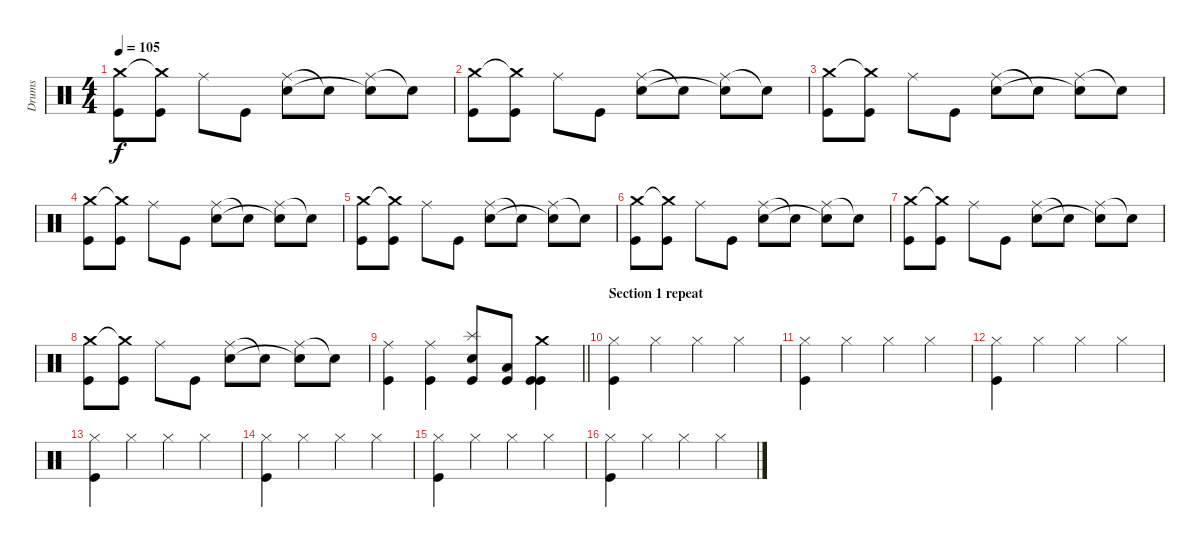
\track ("Drums" "Drums") {instrument percussion}
\staff {score}
\articulation defaults
\ts (4 4)
\tempo 105
\clef neutral
\ks c
("Crash medium (hit)" "Kick (hit)").8{dy f} ("Crash medium (hit)"{t} "Kick (hit)").8 "Ride (middle)".8 "Kick (hit)".8 ("Ride (middle)" "Snare (hit) 2").8 "Snare (hit) 2"{t}.8 ("Ride (middle)" "Snare (hit) 2"{t}).8 "Snare (hit) 2"{t}.8 |
("Crash medium (hit)" "Kick (hit)").8 ("Crash medium (hit)"{t} "Kick (hit)").8 "Ride (middle)".8 "Kick (hit)".8 ("Ride (middle)" "Snare (hit) 2").8 "Snare (hit) 2"{t}.8 ("Ride (middle)" "Snare (hit) 2"{t}).8 "Snare (hit) 2"{t}.8 |
("Crash medium (hit)" "Kick (hit)").8 ("Crash medium (hit)"{t} "Kick (hit)").8 "Ride (middle)".8 "Kick (hit)".8 ("Ride (middle)" "Snare (hit) 2").8 "Snare (hit) 2"{t}.8 ("Ride (middle)" "Snare (hit) 2"{t}).8 "Snare (hit) 2"{t}.8 |
("Crash medium (hit)" "Kick (hit)").8 ("Crash medium (hit)"{t} "Kick (hit)").8 "Ride (middle)".8 "Kick (hit)".8 ("Ride (middle)" "Snare (hit) 2").8 "Snare (hit) 2"{t}.8 ("Ride (middle)" "Snare (hit) 2"{t}).8 "Snare (hit) 2"{t}.8 |
("Crash medium (hit)" "Kick (hit)").8 ("Crash medium (hit)"{t} "Kick (hit)").8 "Ride (middle)".8 "Kick (hit)".8 ("Ride (middle)" "Snare (hit) 2").8 "Snare (hit) 2"{t}.8 ("Ride (middle)" "Snare (hit) 2"{t}).8 "Snare (hit) 2"{t}.8 |
("Crash medium (hit)" "Kick (hit)").8 ("Crash medium (hit)"{t} "Kick (hit)").8 "Ride (middle)".8 "Kick (hit)".8 ("Ride (middle)" "Snare (hit) 2").8 "Snare (hit) 2"{t}.8 ("Ride (middle)" "Snare (hit) 2"{t}).8 "Snare (hit) 2"{t}.8 |
("Crash medium (hit)" "Kick (hit)").8 ("Crash medium (hit)"{t} "Kick (hit)").8 "Ride (middle)".8 "Kick (hit)".8 ("Ride (middle)" "Snare (hit) 2").8 "Snare (hit) 2"{t}.8 ("Ride (middle)" "Snare (hit) 2"{t}).8 "Snare (hit) 2"{t}.8 |
("Crash medium (hit)" "Kick (hit)").8 ("Crash medium (hit)"{t} "Kick (hit)").8 "Ride (middle)".8 "Kick (hit)".8 ("Ride (middle)" "Snare (hit) 2").8 "Snare (hit) 2"{t}.8 ("Ride (middle)" "Snare (hit) 2"{t}).8 "Snare (hit) 2"{t}.8 |
\barLineRight lightlight
("Ride (middle)" "Kick (hit)").4 ("Ride (middle)" "Kick (hit)").4 ("Splash (hit)" "Electric Snare (hit)" "Kick (hit)").8 ("Low Tom (hit)" "Kick (hit)").8 ("Crash medium (hit)" "Kick (hit)" "Kick (hit)").4 |
\section ("" "Section 1 repeat")
("Hi-Hat (closed)" "Kick (hit)").4 "Hi-Hat (closed)".4 "Hi-Hat (closed)".4 "Hi-Hat (closed)".4 |
("Hi-Hat (closed)" "Kick (hit)").4 "Hi-Hat (closed)".4 "Hi-Hat (closed)".4 "Hi-Hat (closed)".4 |
("Hi-Hat (closed)" "Kick (hit)").4 "Hi-Hat (closed)".4 "Hi-Hat (closed)".4 "Hi-Hat (closed)".4 |
("Hi-Hat (closed)" "Kick (hit)").4 "Hi-Hat (closed)".4 "Hi-Hat (closed)".4 "Hi-Hat (closed)".4 |
("Hi-Hat (closed)" "Kick (hit)").4 "Hi-Hat (closed)".4 "Hi-Hat (closed)".4 "Hi-Hat (closed)".4 |
("Hi-Hat (closed)" "Kick (hit)").4 "Hi-Hat (closed)".4 "Hi-Hat (closed)".4 "Hi-Hat (closed)".4 |
("Hi-Hat (closed)" "Kick (hit)").4 "Hi-Hat (closed)".4 "Hi-Hat (closed)".4 "Hi-Hat (closed)".4
